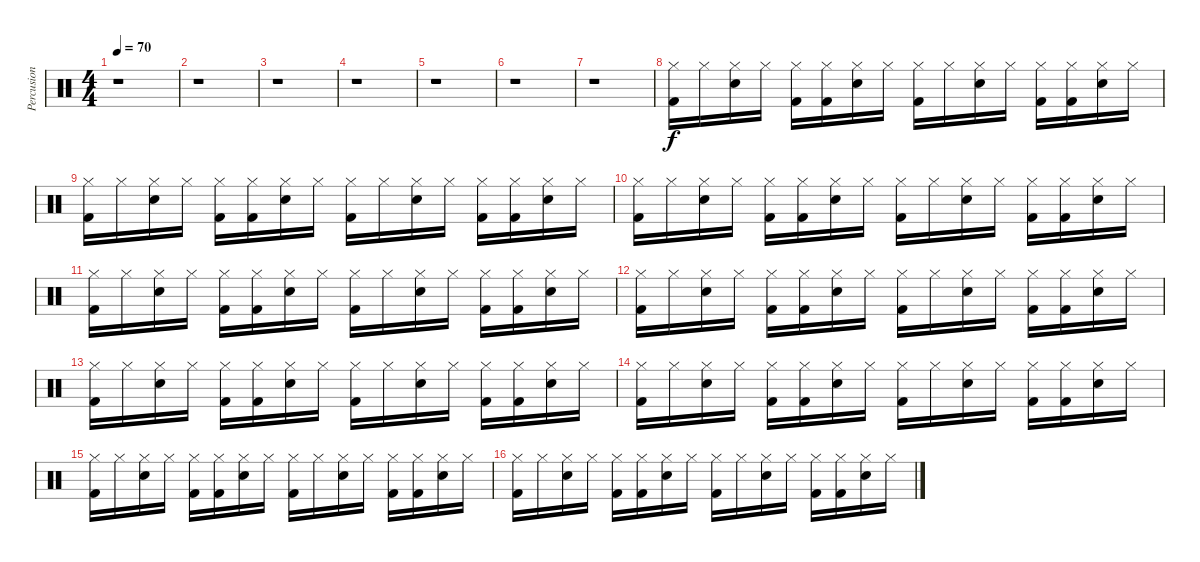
\track ("Percusion" "Percusion") {instrument percussion}
\staff {score}
\articulation defaults
\ts (4 4)
\tempo 70
\clef neutral
\ks c
r.1{dy f} |
r.1 |
r.1 |
r.1 |
r.1 |
r.1 |
r.1 |
("Hi-Hat (closed)" "Kick (hit) 2").16 "Hi-Hat (closed)".16 ("Hi-Hat (closed)" "Snare (hit) 2").16 "Hi-Hat (closed)".16 ("Hi-Hat (closed)" "Kick (hit) 2").16 ("Hi-Hat (closed)" "Kick (hit) 2").16 ("Hi-Hat (closed)" "Snare (hit) 2").16 "Hi-Hat (closed)".16 ("Hi-Hat (closed)" "Kick (hit) 2").16 "Hi-Hat (closed)".16 ("Hi-Hat (closed)" "Snare (hit) 2").16 "Hi-Hat (closed)".16 ("Hi-Hat (closed)" "Kick (hit) 2").16 ("Hi-Hat (closed)" "Kick (hit) 2").16 ("Hi-Hat (closed)" "Snare (hit) 2").16 "Hi-Hat (closed)".16 |
("Hi-Hat (closed)" "Kick (hit) 2").16 "Hi-Hat (closed)".16 ("Hi-Hat (closed)" "Snare (hit) 2").16 "Hi-Hat (closed)".16 ("Hi-Hat (closed)" "Kick (hit) 2").16 ("Hi-Hat (closed)" "Kick (hit) 2").16 ("Hi-Hat (closed)" "Snare (hit) 2").16 "Hi-Hat (closed)".16 ("Hi-Hat (closed)" "Kick (hit) 2").16 "Hi-Hat (closed)".16 ("Hi-Hat (closed)" "Snare (hit) 2").16 "Hi-Hat (closed)".16 ("Hi-Hat (closed)" "Kick (hit) 2").16 ("Hi-Hat (closed)" "Kick (hit) 2").16 ("Hi-Hat (closed)" "Snare (hit) 2").16 "Hi-Hat (closed)".16 |
("Hi-Hat (closed)" "Kick (hit) 2").16 "Hi-Hat (closed)".16 ("Hi-Hat (closed)" "Snare (hit) 2").16 "Hi-Hat (closed)".16 ("Hi-Hat (closed)" "Kick (hit) 2").16 ("Hi-Hat (closed)" "Kick (hit) 2").16 ("Hi-Hat (closed)" "Snare (hit) 2").16 "Hi-Hat (closed)".16 ("Hi-Hat (closed)" "Kick (hit) 2").16 "Hi-Hat (closed)".16 ("Hi-Hat (closed)" "Snare (hit) 2").16 "Hi-Hat (closed)".16 ("Hi-Hat (closed)" "Kick (hit) 2").16 ("Hi-Hat (closed)" "Kick (hit) 2").16 ("Hi-Hat (closed)" "Snare (hit) 2").16 "Hi-Hat (closed)".16 |
("Hi-Hat (closed)" "Kick (hit) 2").16 "Hi-Hat (closed)".16 ("Hi-Hat (closed)" "Snare (hit) 2").16 "Hi-Hat (closed)".16 ("Hi-Hat (closed)" "Kick (hit) 2").16 ("Hi-Hat (closed)" "Kick (hit) 2").16 ("Hi-Hat (closed)" "Snare (hit) 2").16 "Hi-Hat (closed)".16 ("Hi-Hat (closed)" "Kick (hit) 2").16 "Hi-Hat (closed)".16 ("Hi-Hat (closed)" "Snare (hit) 2").16 "Hi-Hat (closed)".16 ("Hi-Hat (closed)" "Kick (hit) 2").16 ("Hi-Hat (closed)" "Kick (hit) 2").16 ("Hi-Hat (closed)" "Snare (hit) 2").16 "Hi-Hat (closed)".16 |
("Hi-Hat (closed)" "Kick (hit) 2").16 "Hi-Hat (closed)".16 ("Hi-Hat (closed)" "Snare (hit) 2").16 "Hi-Hat (closed)".16 ("Hi-Hat (closed)" "Kick (hit) 2").16 ("Hi-Hat (closed)" "Kick (hit) 2").16 ("Hi-Hat (closed)" "Snare (hit) 2").16 "Hi-Hat (closed)".16 ("Hi-Hat (closed)" "Kick (hit) 2").16 "Hi-Hat (closed)".16 ("Hi-Hat (closed)" "Snare (hit) 2").16 "Hi-Hat (closed)".16 ("Hi-Hat (closed)" "Kick (hit) 2").16 ("Hi-Hat (closed)" "Kick (hit) 2").16 ("Hi-Hat (closed)" "Snare (hit) 2").16 "Hi-Hat (closed)".16 |
("Hi-Hat (closed)" "Kick (hit) 2").16 "Hi-Hat (closed)".16 ("Hi-Hat (closed)" "Snare (hit) 2").16 "Hi-Hat (closed)".16 ("Hi-Hat (closed)" "Kick (hit) 2").16 ("Hi-Hat (closed)" "Kick (hit) 2").16 ("Hi-Hat (closed)" "Snare (hit) 2").16 "Hi-Hat (closed)".16 ("Hi-Hat (closed)" "Kick (hit) 2").16 "Hi-Hat (closed)".16 ("Hi-Hat (closed)" "Snare (hit) 2").16 "Hi-Hat (closed)".16 ("Hi-Hat (closed)" "Kick (hit) 2").16 ("Hi-Hat (closed)" "Kick (hit) 2").16 ("Hi-Hat (closed)" "Snare (hit) 2").16 "Hi-Hat (closed)".16 |
("Hi-Hat (closed)" "Kick (hit) 2").16 "Hi-Hat (closed)".16 ("Hi-Hat (closed)" "Snare (hit) 2").16 "Hi-Hat (closed)".16 ("Hi-Hat (closed)" "Kick (hit) 2").16 ("Hi-Hat (closed)" "Kick (hit) 2").16 ("Hi-Hat (closed)" "Snare (hit) 2").16 "Hi-Hat (closed)".16 ("Hi-Hat (closed)" "Kick (hit) 2").16 "Hi-Hat (closed)".16 ("Hi-Hat (closed)" "Snare (hit) 2").16 "Hi-Hat (closed)".16 ("Hi-Hat (closed)" "Kick (hit) 2").16 ("Hi-Hat (closed)" "Kick (hit) 2").16 ("Hi-Hat (closed)" "Snare (hit) 2").16 "Hi-Hat (closed)".16 |
("Hi-Hat (closed)" "Kick (hit) 2").16 "Hi-Hat (closed)".16 ("Hi-Hat (closed)" "Snare (hit) 2").16 "Hi-Hat (closed)".16 ("Hi-Hat (closed)" "Kick (hit) 2").16 ("Hi-Hat (closed)" "Kick (hit) 2").16 ("Hi-Hat (closed)" "Snare (hit) 2").16 "Hi-Hat (closed)".16 ("Hi-Hat (closed)" "Kick (hit) 2").16 "Hi-Hat (closed)".16 ("Hi-Hat (closed)" "Snare (hit) 2").16 "Hi-Hat (closed)".16 ("Hi-Hat (closed)" "Kick (hit) 2").16 ("Hi-Hat (closed)" "Kick (hit) 2").16 ("Hi-Hat (closed)" "Snare (hit) 2").16 "Hi-Hat (closed)".16 |
("Hi-Hat (closed)" "Kick (hit) 2").16 "Hi-Hat (closed)".16 ("Hi-Hat (closed)" "Snare (hit) 2").16 "Hi-Hat (closed)".16 ("Hi-Hat (closed)" "Kick (hit) 2").16 ("Hi-Hat (closed)" "Kick (hit) 2").16 ("Hi-Hat (closed)" "Snare (hit) 2").16 "Hi-Hat (closed)".16 ("Hi-Hat (closed)" "Kick (hit) 2").16 "Hi-Hat (closed)".16 ("Hi-Hat (closed)" "Snare (hit) 2").16 "Hi-Hat (closed)".16 ("Hi-Hat (closed)" "Kick (hit) 2").16 ("Hi-Hat (closed)" "Kick (hit) 2").16 ("Hi-Hat (closed)" "Snare (hit) 2").16 "Hi-Hat (closed)".16
